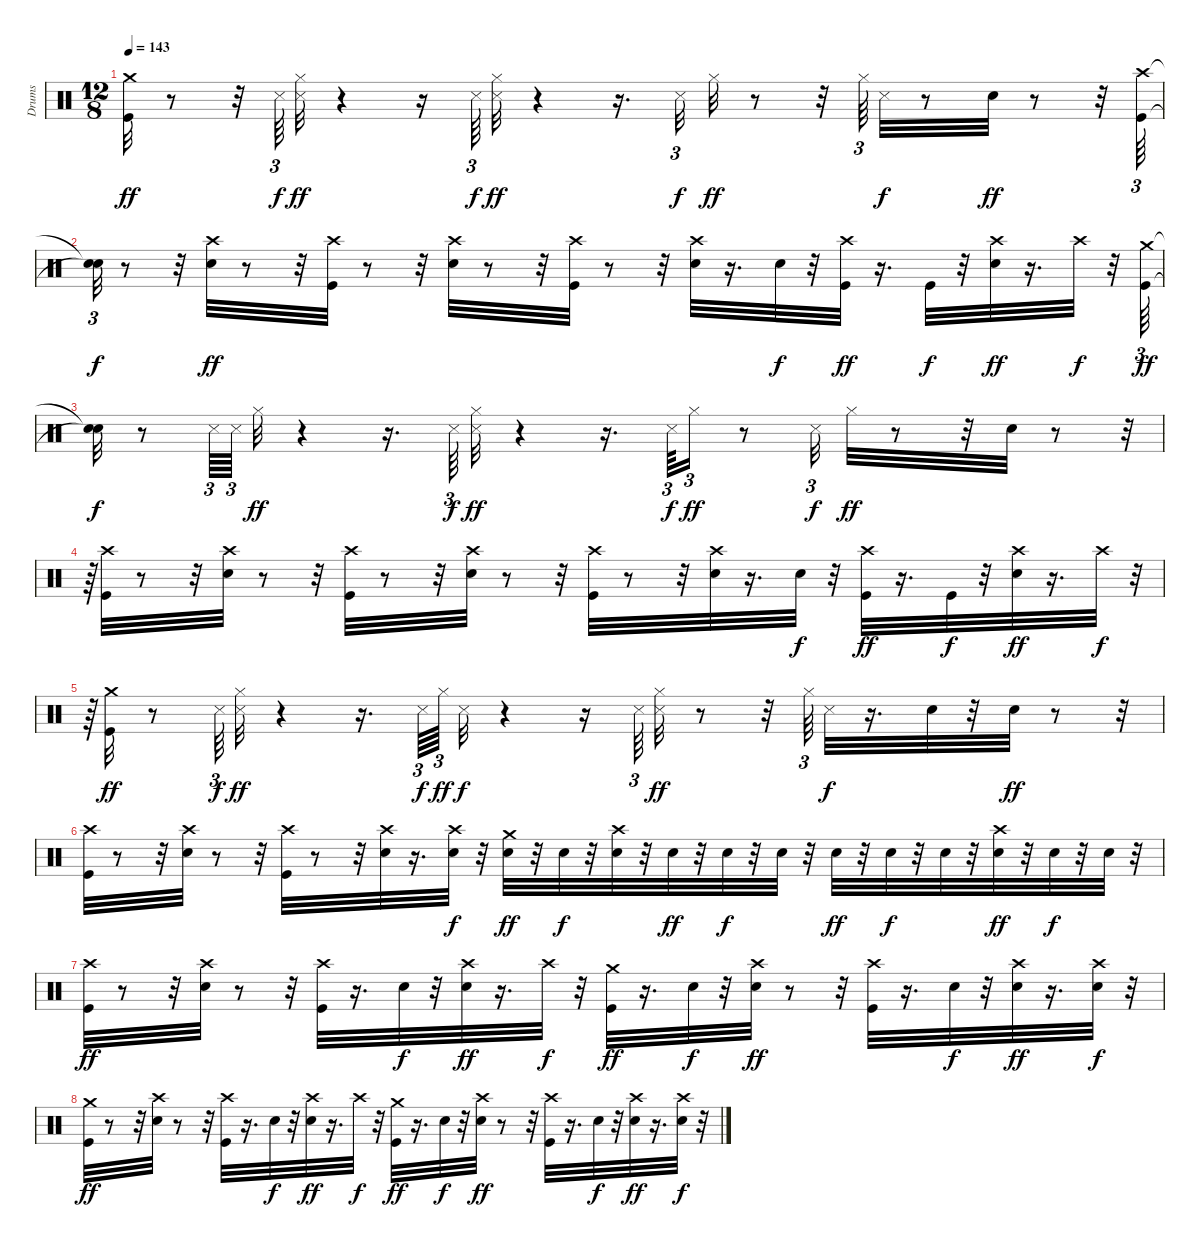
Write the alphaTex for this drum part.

\track ("Drums" "Drums") {instrument percussion}
\staff {score}
\articulation defaults
\ts (12 8)
\tempo 143
\clef neutral
\ks c
("Crash medium (hit)" "Kick (hit)").32{dy ff} r.8 r.32 "Metronome (hit)".64{tu (3 2) dy f} ("Metronome (hit)" "Hi-Hat (closed)").32{dy ff} r.4 r.16 "Metronome (hit)".64{tu (3 2) dy f} ("Metronome (hit)" "Hi-Hat (closed)").32{dy ff} r.4 r.16{d} "Metronome (hit)".32{tu (3 2) dy f} "Hi-Hat (closed)".32{dy ff} r.8 r.32 "Hi-Hat (closed)".64{tu (3 2)} "Metronome (hit)".32{dy f} r.8 "Snare (hit) 2".32{dy ff} r.8 r.32 ("Crash high (hit)" "Kick (hit)").64{tu (3 2)} |
("Snare (hit)"{t} "Snare (hit)"{t}).32{tu (3 2) dy f} r.8 r.32 ("Crash high (hit)" "Snare (hit) 2").32{dy ff} r.8 r.32 ("Crash high (hit)" "Kick (hit)").32 r.8 r.32 ("Crash high (hit)" "Snare (hit) 2").32 r.8 r.32 ("Crash high (hit)" "Kick (hit)").32 r.8 r.32 ("Crash high (hit)" "Snare (hit) 2").32 r.16{d} "Snare (hit) 2".32{dy f} r.32 ("Crash high (hit)" "Kick (hit)").32{dy ff} r.16{d} "Kick (hit)".32{dy f} r.32 ("Crash high (hit)" "Snare (hit) 2").32{dy ff} r.16{d} "Crash high (hit)".32{dy f} r.32 ("Kick (hit)" "Crash medium (hit)").64{tu (3 2) dy ff} |
("Snare (hit)"{t} "Snare (hit)"{t}).32{dy f} r.8 "Metronome (hit)".64{tu (3 2)} "Metronome (hit)".64{tu (3 2)} "Hi-Hat (closed)".32{dy ff} r.4 r.16{d} "Metronome (hit)".64{tu (3 2) dy f} ("Metronome (hit)" "Hi-Hat (closed)").32{dy ff} r.4 r.16{d} "Metronome (hit)".64{tu (3 2) dy f} "Hi-Hat (closed)".16{tu (3 2) dy ff} r.8 "Metronome (hit)".32{tu (3 2) dy f} "Hi-Hat (closed)".32{dy ff} r.8 r.32 "Snare (hit) 2".32 r.8 r.32{tu (3 2)} |
r.64{tu (3 2)} ("Crash high (hit)" "Kick (hit)").32 r.8 r.32 ("Crash high (hit)" "Snare (hit) 2").32 r.8 r.32 ("Crash high (hit)" "Kick (hit)").32 r.8 r.32 ("Crash high (hit)" "Snare (hit) 2").32 r.8 r.32 ("Crash high (hit)" "Kick (hit)").32 r.8 r.32 ("Crash high (hit)" "Snare (hit) 2").32 r.16{d} "Snare (hit) 2".32{dy f} r.32 ("Crash high (hit)" "Kick (hit)").32{dy ff} r.16{d} "Kick (hit)".32{dy f} r.32 ("Crash high (hit)" "Snare (hit) 2").32{dy ff} r.16{d} "Crash high (hit)".32{dy f} r.32{tu (3 2)} |
r.64{tu (3 2)} ("Kick (hit)" "Crash medium (hit)").32{dy ff} r.8 "Metronome (hit)".64{tu (3 2) dy f} ("Metronome (hit)" "Hi-Hat (closed)").32{dy ff} r.4 r.16{d} "Metronome (hit)".64{tu (3 2) dy f} "Hi-Hat (closed)".64{tu (3 2) dy ff} "Metronome (hit)".32{dy f} r.4 r.16 "Metronome (hit)".64{tu (3 2)} ("Metronome (hit)" "Hi-Hat (closed)").32{dy ff} r.8 r.32 "Hi-Hat (closed)".64{tu (3 2)} "Metronome (hit)".32{dy f} r.16{d} "Snare (hit) 2".32 r.32 "Snare (hit) 2".32{dy ff} r.8 r.32 |
("Crash high (hit)" "Kick (hit)").32 r.8 r.32 ("Crash high (hit)" "Snare (hit) 2").32 r.8 r.32 ("Crash high (hit)" "Kick (hit)").32 r.8 r.32 ("Crash high (hit)" "Snare (hit) 2").32 r.16{d} ("Electric Snare (hit)" "Crash high (hit)").32{dy f} r.32 ("Snare (hit) 2" "Crash medium (hit)").32{dy ff} r.32 "Snare (hit) 2".32{dy f} r.32 ("Crash high (hit)" "Snare (hit) 2").32 r.32 "Snare (hit) 2".32{dy ff} r.32 "Snare (hit) 2".32{dy f} r.32 "Snare (hit) 2".32 r.32 "Snare (hit) 2".32{dy ff} r.32 "Snare (hit) 2".32{dy f} r.32 "Snare (hit) 2".32 r.32 ("Crash high (hit)" "Snare (hit) 2").32{dy ff} r.32 "Snare (hit) 2".32{dy f} r.32 "Snare (hit) 2".32 r.32 |
("Crash high (hit)" "Kick (hit)").32{dy ff} r.8 r.32 ("Crash high (hit)" "Snare (hit) 2").32 r.8 r.32 ("Crash high (hit)" "Kick (hit)").32 r.16{d} "Electric Snare (hit)".32{dy f} r.32 ("Crash high (hit)" "Snare (hit) 2").32{dy ff} r.16{d} "Crash high (hit)".32{dy f} r.32 ("Crash medium (hit)" "Kick (hit)").32{dy ff} r.16{d} "Snare (hit) 2".32{dy f} r.32 ("Crash high (hit)" "Snare (hit) 2").32{dy ff} r.8 r.32 ("Crash high (hit)" "Kick (hit)").32 r.16{d} "Electric Snare (hit)".32{dy f} r.32 ("Crash high (hit)" "Snare (hit) 2").32{dy ff} r.16{d} ("Electric Snare (hit)" "Crash high (hit)").32{dy f} r.32 |
("Crash medium (hit)" "Kick (hit)").32{dy ff} r.8 r.32 ("Crash high (hit)" "Snare (hit) 2").32 r.8 r.32 ("Crash high (hit)" "Kick (hit)").32 r.16{d} "Electric Snare (hit)".32{dy f} r.32 ("Crash high (hit)" "Snare (hit) 2").32{dy ff} r.16{d} "Crash high (hit)".32{dy f} r.32 ("Crash medium (hit)" "Kick (hit)").32{dy ff} r.16{d} "Snare (hit) 2".32{dy f} r.32 ("Crash high (hit)" "Snare (hit) 2").32{dy ff} r.8 r.32 ("Crash high (hit)" "Kick (hit)").32 r.16{d} "Electric Snare (hit)".32{dy f} r.32 ("Crash high (hit)" "Snare (hit) 2").32{dy ff} r.16{d} ("Electric Snare (hit)" "Crash high (hit)").32{dy f} r.32
